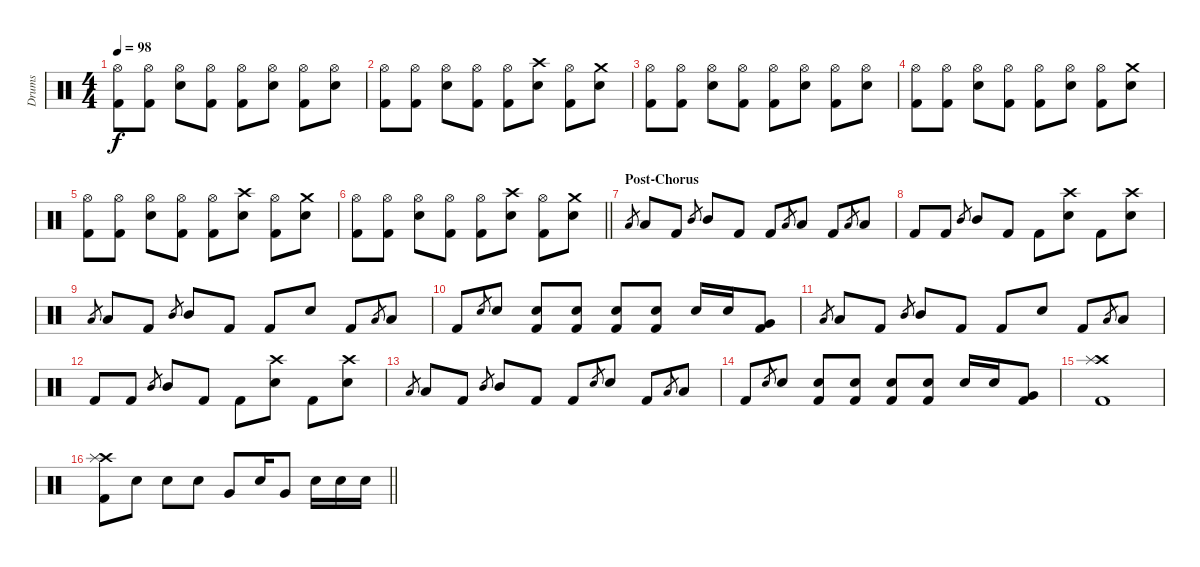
\track ("Drums" "Drums") {instrument percussion}
\staff
\articulation defaults
\ts (4 4)
\tempo 98
\clef neutral
\ks c
("Hi-Hat (open)" "Kick (hit) 2").8{dy f} ("Hi-Hat (open)" "Kick (hit) 2").8 ("Hi-Hat (open)" "Snare (hit) 2").8 ("Hi-Hat (open)" "Kick (hit) 2").8 ("Hi-Hat (open)" "Kick (hit) 2").8 ("Hi-Hat (open)" "Snare (hit) 2").8 ("Hi-Hat (open)" "Kick (hit) 2").8 ("Hi-Hat (open)" "Snare (hit) 2").8 |
("Hi-Hat (open)" "Kick (hit) 2").8 ("Hi-Hat (open)" "Kick (hit) 2").8 ("Hi-Hat (open)" "Snare (hit) 2").8 ("Hi-Hat (open)" "Kick (hit) 2").8 ("Hi-Hat (open)" "Kick (hit) 2").8 ("Crash high (hit)" "Snare (hit) 2").8 ("Hi-Hat (open)" "Kick (hit) 2").8 ("Crash medium (hit)" "Snare (hit) 2").8 |
("Hi-Hat (open)" "Kick (hit) 2").8 ("Hi-Hat (open)" "Kick (hit) 2").8 ("Hi-Hat (open)" "Snare (hit) 2").8 ("Hi-Hat (open)" "Kick (hit) 2").8 ("Hi-Hat (open)" "Kick (hit) 2").8 ("Hi-Hat (open)" "Snare (hit) 2").8 ("Hi-Hat (open)" "Kick (hit) 2").8 ("Hi-Hat (open)" "Snare (hit) 2").8 |
("Hi-Hat (open)" "Kick (hit) 2").8 ("Hi-Hat (open)" "Kick (hit) 2").8 ("Hi-Hat (open)" "Snare (hit) 2").8 ("Hi-Hat (open)" "Kick (hit) 2").8 ("Hi-Hat (open)" "Kick (hit) 2").8 ("Hi-Hat (open)" "Snare (hit) 2").8 ("Hi-Hat (open)" "Kick (hit) 2").8 ("Crash medium (hit)" "Snare (hit) 2").8 |
("Hi-Hat (open)" "Kick (hit) 2").8 ("Hi-Hat (open)" "Kick (hit) 2").8 ("Hi-Hat (open)" "Snare (hit) 2").8 ("Hi-Hat (open)" "Kick (hit) 2").8 ("Hi-Hat (open)" "Kick (hit) 2").8 ("Crash high (hit)" "Snare (hit) 2").8 ("Hi-Hat (open)" "Kick (hit) 2").8 ("Crash medium (hit)" "Snare (hit) 2").8 |
\barLineRight lightlight
("Hi-Hat (open)" "Kick (hit) 2").8 ("Hi-Hat (open)" "Kick (hit) 2").8 ("Hi-Hat (open)" "Snare (hit) 2").8 ("Hi-Hat (open)" "Kick (hit) 2").8 ("Hi-Hat (open)" "Kick (hit) 2").8 ("Crash high (hit)" "Snare (hit) 2").8 ("Hi-Hat (open)" "Kick (hit) 2").8 ("Crash medium (hit)" "Snare (hit) 2").8 |
\section ("" "Post-Chorus")
"Low Tom (hit)".8{gr} "Low Tom (hit)".8 "Kick (hit) 2".8 "Mid Tom (hit)".8{gr} "Mid Tom (hit)".8 "Kick (hit) 2".8 "Kick (hit) 2".8 "Low Tom (hit)".8{gr} "Low Tom (hit)".8 "Kick (hit) 2".8 "Low Tom (hit)".8{gr} "Low Tom (hit)".8 |
"Kick (hit) 2".8 "Kick (hit) 2".8 "Mid Tom (hit)".8{gr} "Mid Tom (hit)".8 "Kick (hit) 2".8 "Kick (hit) 2".8 ("Crash high (hit)" "Snare (hit) 2").8 "Kick (hit) 2".8 ("Crash high (hit)" "Snare (hit) 2").8 |
"Low Tom (hit)".8{gr} "Low Tom (hit)".8 "Kick (hit) 2".8 "Mid Tom (hit)".8{gr} "Mid Tom (hit)".8 "Kick (hit) 2".8 "Kick (hit) 2".8 "Snare (hit) 2".8 "Kick (hit) 2".8 "Low Tom (hit)".8{gr} "Low Tom (hit)".8 |
"Kick (hit) 2".8 "Snare (hit) 2".8{gr} "Snare (hit) 2".8 ("Snare (hit) 2" "Kick (hit) 2").8 ("Snare (hit) 2" "Kick (hit) 2").8 ("Snare (hit) 2" "Kick (hit) 2").8 ("Snare (hit) 2" "Kick (hit) 2").8 "Snare (hit) 2".16 "Snare (hit) 2".16 ("Very Low Tom (hit)" "Kick (hit) 2").8 |
"Low Tom (hit)".8{gr} "Low Tom (hit)".8 "Kick (hit) 2".8 "Mid Tom (hit)".8{gr} "Mid Tom (hit)".8 "Kick (hit) 2".8 "Kick (hit) 2".8 "Snare (hit) 2".8 "Kick (hit) 2".8 "Low Tom (hit)".8{gr} "Low Tom (hit)".8 |
"Kick (hit) 2".8 "Kick (hit) 2".8 "Mid Tom (hit)".8{gr} "Mid Tom (hit)".8 "Kick (hit) 2".8 "Kick (hit) 2".8 ("Crash high (hit)" "Snare (hit) 2").8 "Kick (hit) 2".8 ("Crash high (hit)" "Snare (hit) 2").8 |
"Low Tom (hit)".8{gr} "Low Tom (hit)".8 "Kick (hit) 2".8 "Mid Tom (hit)".8{gr} "Mid Tom (hit)".8 "Kick (hit) 2".8 "Kick (hit) 2".8 "Snare (hit) 2".8{gr} "Snare (hit) 2".8 "Kick (hit) 2".8 "Low Tom (hit)".8{gr} "Low Tom (hit)".8 |
"Kick (hit) 2".8 "Snare (hit) 2".8{gr} "Snare (hit) 2".8 ("Snare (hit) 2" "Kick (hit) 2").8 ("Snare (hit) 2" "Kick (hit) 2").8 ("Snare (hit) 2" "Kick (hit) 2").8 ("Snare (hit) 2" "Kick (hit) 2").8 "Snare (hit) 2".16 "Snare (hit) 2".16 ("Very Low Tom (hit)" "Kick (hit) 2").8 |
("Crash high (hit)" "Splash (hit)" "Kick (hit) 2").1 |
\barLineRight lightlight
("Crash high (hit)" "Splash (hit)" "Kick (hit) 2").8 "Snare (hit) 2".8 "Snare (hit) 2".8 "Snare (hit) 2".8 "Very Low Tom (hit)".8 "Snare (hit) 2".16 "Very Low Tom (hit)".8 "Snare (hit) 2".16 "Snare (hit) 2".16 "Snare (hit) 2".16
